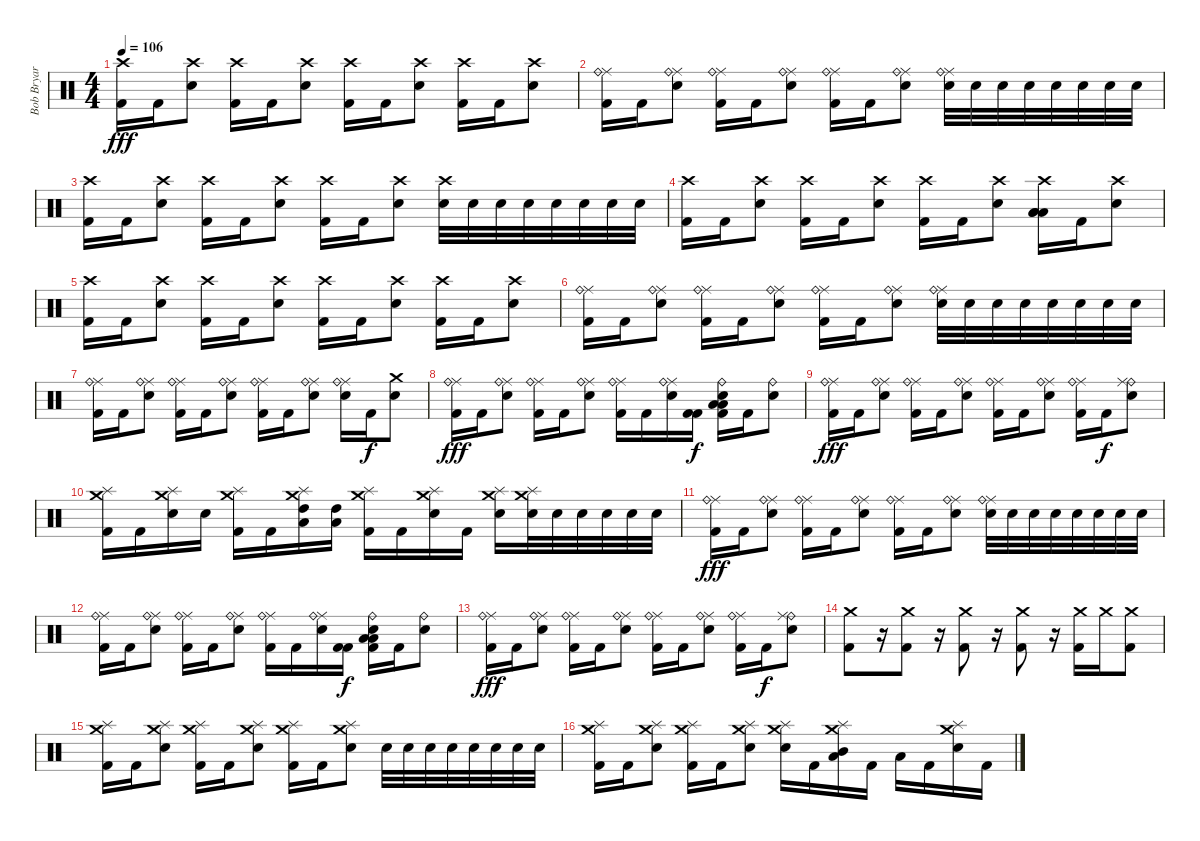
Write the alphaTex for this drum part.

\track ("Bob Bryar" "Bob Bryar") {instrument percussion}
\staff {score}
\articulation defaults
\ts (4 4)
\tempo 106
\clef neutral
\ks c
("Kick (hit) 2" "Crash high (hit)").16{dy fff} "Kick (hit) 2".16 ("Electric Snare (hit)" "Crash high (hit)").8 ("Kick (hit) 2" "Crash high (hit)").16 "Kick (hit) 2".16 ("Electric Snare (hit)" "Crash high (hit)").8 ("Kick (hit) 2" "Crash high (hit)").16 "Kick (hit) 2".16 ("Electric Snare (hit)" "Crash high (hit)").8 ("Kick (hit) 2" "Crash high (hit)").16 "Kick (hit) 2".16 ("Electric Snare (hit)" "Crash high (hit)").8 |
("Kick (hit) 2" "Ride (middle)" "Ride (bell)").16 "Kick (hit) 2".16 ("Electric Snare (hit)" "Ride (middle)" "Ride (bell)").8 ("Kick (hit) 2" "Ride (middle)" "Ride (bell)").16 "Kick (hit) 2".16 ("Electric Snare (hit)" "Ride (middle)" "Ride (bell)").8 ("Kick (hit) 2" "Ride (middle)" "Ride (bell)").16 "Kick (hit) 2".16 ("Electric Snare (hit)" "Ride (middle)" "Ride (bell)").8 ("Electric Snare (hit)" "Ride (middle)" "Ride (bell)").32 "Electric Snare (hit)".32 "Electric Snare (hit)".32 "Electric Snare (hit)".32 "Electric Snare (hit)".32 "Electric Snare (hit)".32 "Electric Snare (hit)".32 "Electric Snare (hit)".32 |
("Kick (hit) 2" "Crash high (hit)").16 "Kick (hit) 2".16 ("Electric Snare (hit)" "Crash high (hit)").8 ("Kick (hit) 2" "Crash high (hit)").16 "Kick (hit) 2".16 ("Electric Snare (hit)" "Crash high (hit)").8 ("Kick (hit) 2" "Crash high (hit)").16 "Kick (hit) 2".16 ("Electric Snare (hit)" "Crash high (hit)").8 ("Electric Snare (hit)" "Crash high (hit)").32 "Electric Snare (hit)".32 "Electric Snare (hit)".32 "Electric Snare (hit)".32 "Electric Snare (hit)".32 "Electric Snare (hit)".32 "Electric Snare (hit)".32 "Electric Snare (hit)".32 |
("Kick (hit) 2" "Crash high (hit)").16 "Kick (hit) 2".16 ("Electric Snare (hit)" "Crash high (hit)").8 ("Kick (hit) 2" "Crash high (hit)").16 "Kick (hit) 2".16 ("Electric Snare (hit)" "Crash high (hit)").8 ("Kick (hit) 2" "Crash high (hit)").16 "Kick (hit) 2".16 ("Electric Snare (hit)" "Crash high (hit)").8 ("Low Floor Tom (hit)" "Low Floor Tom (hit)" "Low Floor Tom (hit)" "Crash high (hit)").16 "Kick (hit) 2".16 ("Electric Snare (hit)" "Crash high (hit)").8 |
("Kick (hit) 2" "Crash high (hit)").16 "Kick (hit) 2".16 ("Electric Snare (hit)" "Crash high (hit)").8 ("Kick (hit) 2" "Crash high (hit)").16 "Kick (hit) 2".16 ("Electric Snare (hit)" "Crash high (hit)").8 ("Kick (hit) 2" "Crash high (hit)").16 "Kick (hit) 2".16 ("Electric Snare (hit)" "Crash high (hit)").8 ("Kick (hit) 2" "Crash high (hit)").16 "Kick (hit) 2".16 ("Electric Snare (hit)" "Crash high (hit)").8 |
("Kick (hit) 2" "Ride (middle)" "Ride (bell)").16 "Kick (hit) 2".16 ("Electric Snare (hit)" "Ride (middle)" "Ride (bell)").8 ("Kick (hit) 2" "Ride (middle)" "Ride (bell)").16 "Kick (hit) 2".16 ("Electric Snare (hit)" "Ride (middle)" "Ride (bell)").8 ("Kick (hit) 2" "Ride (middle)" "Ride (bell)").16 "Kick (hit) 2".16 ("Electric Snare (hit)" "Ride (middle)" "Ride (bell)").8 ("Electric Snare (hit)" "Ride (middle)" "Ride (bell)").32 "Electric Snare (hit)".32 "Electric Snare (hit)".32 "Electric Snare (hit)".32 "Electric Snare (hit)".32 "Electric Snare (hit)".32 "Electric Snare (hit)".32 "Electric Snare (hit)".32 |
("Kick (hit) 2" "Ride (middle)" "Ride (bell)").16 "Kick (hit) 2".16 ("Electric Snare (hit)" "Ride (middle)" "Ride (bell)").8 ("Kick (hit) 2" "Ride (middle)" "Ride (bell)").16 "Kick (hit) 2".16 ("Electric Snare (hit)" "Ride (middle)" "Ride (bell)").8 ("Kick (hit) 2" "Ride (middle)" "Ride (bell)").16 "Kick (hit) 2".16 ("Electric Snare (hit)" "Ride (middle)" "Ride (bell)").8 ("Electric Snare (hit)" "Ride (middle)" "Ride (bell)").16 "Kick (hit) 2".16{dy f} ("Crash medium (hit)" "Electric Snare (hit)").8 |
("Kick (hit) 2" "Ride (middle)" "Ride (bell)").16{dy fff} "Kick (hit) 2".16 ("Electric Snare (hit)" "Ride (middle)" "Ride (bell)").8 ("Kick (hit) 2" "Ride (middle)" "Ride (bell)").16 "Kick (hit) 2".16 ("Electric Snare (hit)" "Ride (middle)" "Ride (bell)").8 ("Kick (hit) 2" "Ride (middle)" "Ride (bell)").16 "Kick (hit) 2".16 ("Electric Snare (hit)" "Ride (middle)" "Ride (bell)").16 ("Kick (hit) 2" "Kick (hit) 2").16{dy f} ("Kick (hit) 2" "Low Tom (hit)" "Low Tom (hit)" "Electric Snare (hit)" "Ride (bell)").16 "Kick (hit) 2".16 ("Electric Snare (hit)" "Ride (bell)").8 |
("Kick (hit) 2" "Ride (middle)" "Ride (bell)").16{dy fff} "Kick (hit) 2".16 ("Electric Snare (hit)" "Ride (middle)" "Ride (bell)").8 ("Kick (hit) 2" "Ride (middle)" "Ride (bell)").16 "Kick (hit) 2".16 ("Electric Snare (hit)" "Ride (middle)" "Ride (bell)").8 ("Kick (hit) 2" "Ride (middle)" "Ride (bell)").16 "Kick (hit) 2".16 ("Electric Snare (hit)" "Ride (middle)" "Ride (bell)").8 ("Kick (hit) 2" "Ride (middle)" "Ride (bell)").16 "Kick (hit) 2".16{dy f} ("Ride (bell)" "Electric Snare (hit)" "Ride (middle)").8 |
("Kick (hit) 2" "Splash (hit)" "Crash medium (hit)").16 "Kick (hit) 2".16 ("Electric Snare (hit)" "Splash (hit)" "Crash medium (hit)").16 "Electric Snare (hit)".16 ("Kick (hit) 2" "Splash (hit)" "Crash medium (hit)").16 "Kick (hit) 2".16 ("High Tom (hit)" "Low Tom (hit)" "Splash (hit)" "Crash medium (hit)").16 ("Low Tom (hit)" "High Tom (hit)").16 ("Kick (hit) 2" "Splash (hit)" "Crash medium (hit)").16 "Kick (hit) 2".16 ("Electric Snare (hit)" "Splash (hit)" "Crash medium (hit)").16 "Kick (hit) 2".16 ("Electric Snare (hit)" "Splash (hit)" "Crash medium (hit)").16 ("Electric Snare (hit)" "Splash (hit)" "Crash medium (hit)").32 "Electric Snare (hit)".32 "Electric Snare (hit)".32 "Electric Snare (hit)".32 "Electric Snare (hit)".32 "Electric Snare (hit)".32 |
("Kick (hit) 2" "Ride (middle)" "Ride (bell)").16{dy fff} "Kick (hit) 2".16 ("Electric Snare (hit)" "Ride (middle)" "Ride (bell)").8 ("Kick (hit) 2" "Ride (middle)" "Ride (bell)").16 "Kick (hit) 2".16 ("Electric Snare (hit)" "Ride (middle)" "Ride (bell)").8 ("Kick (hit) 2" "Ride (middle)" "Ride (bell)").16 "Kick (hit) 2".16 ("Electric Snare (hit)" "Ride (middle)" "Ride (bell)").8 ("Electric Snare (hit)" "Ride (middle)" "Ride (bell)").32 "Electric Snare (hit)".32 "Electric Snare (hit)".32 "Electric Snare (hit)".32 "Electric Snare (hit)".32 "Electric Snare (hit)".32 "Electric Snare (hit)".32 "Electric Snare (hit)".32 |
("Kick (hit) 2" "Ride (middle)" "Ride (bell)").16 "Kick (hit) 2".16 ("Electric Snare (hit)" "Ride (middle)" "Ride (bell)").8 ("Kick (hit) 2" "Ride (middle)" "Ride (bell)").16 "Kick (hit) 2".16 ("Electric Snare (hit)" "Ride (middle)" "Ride (bell)").8 ("Kick (hit) 2" "Ride (middle)" "Ride (bell)").16 "Kick (hit) 2".16 ("Electric Snare (hit)" "Ride (middle)" "Ride (bell)").16 ("Kick (hit) 2" "Kick (hit) 2").16{dy f} ("Kick (hit) 2" "Low Tom (hit)" "Low Tom (hit)" "Electric Snare (hit)" "Ride (bell)").16 "Kick (hit) 2".16 ("Electric Snare (hit)" "Ride (bell)").8 |
("Kick (hit) 2" "Ride (middle)" "Ride (bell)").16{dy fff} "Kick (hit) 2".16 ("Electric Snare (hit)" "Ride (middle)" "Ride (bell)").8 ("Kick (hit) 2" "Ride (middle)" "Ride (bell)").16 "Kick (hit) 2".16 ("Electric Snare (hit)" "Ride (middle)" "Ride (bell)").8 ("Kick (hit) 2" "Ride (middle)" "Ride (bell)").16 "Kick (hit) 2".16 ("Electric Snare (hit)" "Ride (middle)" "Ride (bell)").8 ("Kick (hit) 2" "Ride (middle)" "Ride (bell)").16 "Kick (hit) 2".16{dy f} ("Ride (bell)" "Electric Snare (hit)" "Ride (middle)").8 |
("Kick (hit) 2" "Crash medium (hit)").8 r.16 ("Crash medium (hit)" "Kick (hit) 2").8 r.16 ("Crash medium (hit)" "Kick (hit) 2").8 r.16 ("Crash medium (hit)" "Kick (hit) 2").8 r.16 ("Crash medium (hit)" "Kick (hit) 2").16 "Crash medium (hit)".16 ("Crash medium (hit)" "Kick (hit) 2").8 |
("Splash (hit)" "Crash medium (hit)" "Kick (hit) 2").16 "Kick (hit) 2".16 ("Splash (hit)" "Crash medium (hit)" "Electric Snare (hit)").8 ("Splash (hit)" "Crash medium (hit)" "Kick (hit) 2").16 "Kick (hit) 2".16 ("Splash (hit)" "Crash medium (hit)" "Electric Snare (hit)").8 ("Splash (hit)" "Crash medium (hit)" "Kick (hit) 2").16 "Kick (hit) 2".16 ("Splash (hit)" "Crash medium (hit)" "Electric Snare (hit)").8 "Electric Snare (hit)".32 "Electric Snare (hit)".32 "Electric Snare (hit)".32 "Electric Snare (hit)".32 "Electric Snare (hit)".32 "Electric Snare (hit)".32 "Electric Snare (hit)".32 "Electric Snare (hit)".32 |
("Splash (hit)" "Crash medium (hit)" "Kick (hit) 2").16 "Kick (hit) 2".16 ("Splash (hit)" "Crash medium (hit)" "Electric Snare (hit)").8 ("Splash (hit)" "Crash medium (hit)" "Kick (hit) 2").16 "Kick (hit) 2".16 ("Splash (hit)" "Crash medium (hit)" "Electric Snare (hit)").8 ("Splash (hit)" "Crash medium (hit)" "Electric Snare (hit)").16 "Kick (hit) 2".16 ("Splash (hit)" "Crash medium (hit)" "Mid Tom (hit)" "Low Tom (hit)").16 "Kick (hit) 2".16 "Low Tom (hit)".16 "Kick (hit) 2".16 ("Electric Snare (hit)" "Crash medium (hit)" "Splash (hit)").16 "Kick (hit) 2".16
